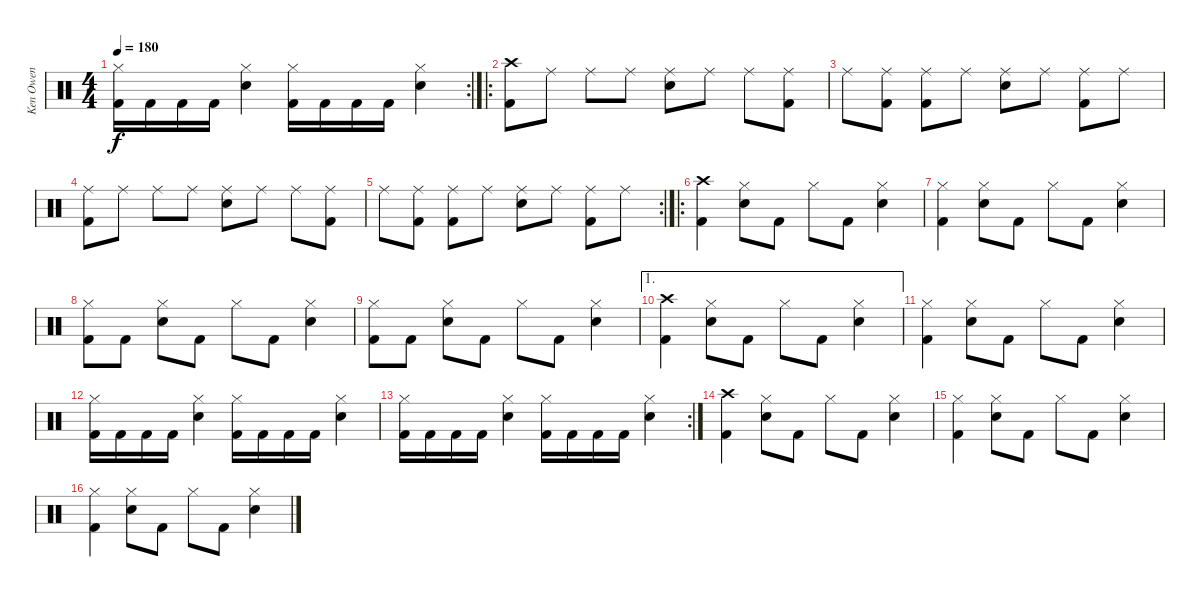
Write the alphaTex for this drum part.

\track ("Ken Owen" "Ken Owen") {instrument percussion}
\staff {score}
\articulation defaults
\rc 2
\ts (4 4)
\tempo 180
\clef neutral
\ks c
("Hi-Hat (closed)" "Kick (hit) 2").16{dy f} "Kick (hit) 2".16 "Kick (hit) 2".16 "Kick (hit) 2".16 ("Hi-Hat (closed)" "Snare (hit) 2").4 ("Hi-Hat (closed)" "Kick (hit) 2").16 "Kick (hit) 2".16 "Kick (hit) 2".16 "Kick (hit) 2".16 ("Hi-Hat (closed)" "Snare (hit) 2").4 |
\ro
("Crash high (hit)" "Kick (hit) 2").8 "Ride (middle)".8 "Ride (middle)".8 "Ride (middle)".8 ("Ride (middle)" "Snare (hit) 2").8 "Ride (middle)".8 "Ride (middle)".8 ("Ride (middle)" "Kick (hit) 2").8 |
"Ride (middle)".8 ("Ride (middle)" "Kick (hit) 2").8 ("Ride (middle)" "Kick (hit) 2").8 "Ride (middle)".8 ("Ride (middle)" "Snare (hit) 2").8 "Ride (middle)".8 ("Ride (middle)" "Kick (hit) 2").8 "Ride (middle)".8 |
("Ride (middle)" "Kick (hit) 2").8 "Ride (middle)".8 "Ride (middle)".8 "Ride (middle)".8 ("Ride (middle)" "Snare (hit) 2").8 "Ride (middle)".8 "Ride (middle)".8 ("Ride (middle)" "Kick (hit) 2").8 |
\rc 2 "Ride (middle)".8
("Ride (middle)" "Kick (hit) 2").8 ("Ride (middle)" "Kick (hit) 2").8 "Ride (middle)".8 ("Ride (middle)" "Snare (hit) 2").8 "Ride (middle)".8 ("Ride (middle)" "Kick (hit) 2").8 "Ride (middle)".8 |
\ro
("Crash high (hit)" "Kick (hit) 2").4 ("Hi-Hat (closed)" "Snare (hit) 2").8 "Kick (hit) 2".8 "Hi-Hat (closed)".8 "Kick (hit) 2".8 ("Hi-Hat (closed)" "Snare (hit) 2").4 |
("Hi-Hat (closed)" "Kick (hit) 2").4 ("Hi-Hat (closed)" "Snare (hit) 2").8 "Kick (hit) 2".8 "Hi-Hat (closed)".8 "Kick (hit) 2".8 ("Hi-Hat (closed)" "Snare (hit) 2").4 |
("Hi-Hat (closed)" "Kick (hit) 2").8 "Kick (hit) 2".8 ("Hi-Hat (closed)" "Snare (hit) 2").8 "Kick (hit) 2".8 "Hi-Hat (closed)".8 "Kick (hit) 2".8 ("Hi-Hat (closed)" "Snare (hit) 2").4 |
("Hi-Hat (closed)" "Kick (hit) 2").8 "Kick (hit) 2".8 ("Hi-Hat (closed)" "Snare (hit) 2").8 "Kick (hit) 2".8 "Hi-Hat (closed)".8 "Kick (hit) 2".8 ("Hi-Hat (closed)" "Snare (hit) 2").4 |
\ae 1
("Crash high (hit)" "Kick (hit) 2").4 ("Hi-Hat (closed)" "Snare (hit) 2").8 "Kick (hit) 2".8 "Hi-Hat (closed)".8 "Kick (hit) 2".8 ("Hi-Hat (closed)" "Snare (hit) 2").4 |
("Hi-Hat (closed)" "Kick (hit) 2").4 ("Hi-Hat (closed)" "Snare (hit) 2").8 "Kick (hit) 2".8 "Hi-Hat (closed)".8 "Kick (hit) 2".8 ("Hi-Hat (closed)" "Snare (hit) 2").4 |
("Hi-Hat (closed)" "Kick (hit) 2").16 "Kick (hit) 2".16 "Kick (hit) 2".16 "Kick (hit) 2".16 ("Hi-Hat (closed)" "Snare (hit) 2").4 ("Hi-Hat (closed)" "Kick (hit) 2").16 "Kick (hit) 2".16 "Kick (hit) 2".16 "Kick (hit) 2".16 ("Hi-Hat (closed)" "Snare (hit) 2").4 |
\rc 2
("Hi-Hat (closed)" "Kick (hit) 2").16 "Kick (hit) 2".16 "Kick (hit) 2".16 "Kick (hit) 2".16 ("Hi-Hat (closed)" "Snare (hit) 2").4 ("Hi-Hat (closed)" "Kick (hit) 2").16 "Kick (hit) 2".16 "Kick (hit) 2".16 "Kick (hit) 2".16 ("Hi-Hat (closed)" "Snare (hit) 2").4 |
("Crash high (hit)" "Kick (hit) 2").4 ("Hi-Hat (closed)" "Snare (hit) 2").8 "Kick (hit) 2".8 "Hi-Hat (closed)".8 "Kick (hit) 2".8 ("Hi-Hat (closed)" "Snare (hit) 2").4 |
("Hi-Hat (closed)" "Kick (hit) 2").4 ("Hi-Hat (closed)" "Snare (hit) 2").8 "Kick (hit) 2".8 "Hi-Hat (closed)".8 "Kick (hit) 2".8 ("Hi-Hat (closed)" "Snare (hit) 2").4 |
("Hi-Hat (closed)" "Kick (hit) 2").4 ("Hi-Hat (closed)" "Snare (hit) 2").8 "Kick (hit) 2".8 "Hi-Hat (closed)".8 "Kick (hit) 2".8 ("Hi-Hat (closed)" "Snare (hit) 2").4
